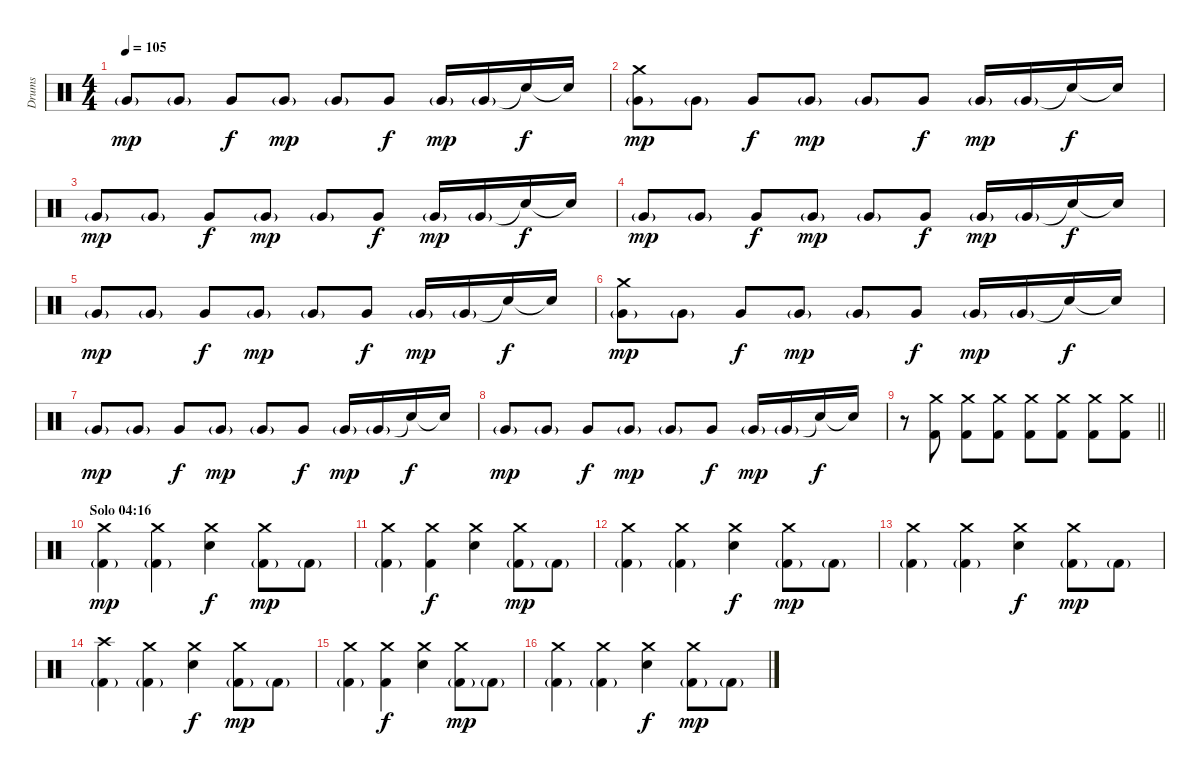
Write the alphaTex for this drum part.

\track ("Drums" "Drums") {instrument percussion}
\staff {score}
\articulation defaults
\ts (4 4)
\tempo 105
\clef neutral
\ks c "Very Low Tom (hit)"{g}.8{dy mp} "Very Low Tom (hit)"{g}.8 "Very Low Tom (hit)".8{dy f} "Very Low Tom (hit)"{g}.8{dy mp} "Very Low Tom (hit)"{g}.8 "Very Low Tom (hit)".8{dy f} "Very Low Tom (hit)"{g}.16{dy mp} "Very Low Tom (hit)"{g}.16 "Snare (hit)"{t}.16{dy f} "Snare (hit)"{t}.16
|
("Crash medium (hit)" "Very Low Tom (hit)"{g}).8{dy mp} "Very Low Tom (hit)"{g}.8 "Very Low Tom (hit)".8{dy f} "Very Low Tom (hit)"{g}.8{dy mp} "Very Low Tom (hit)"{g}.8 "Very Low Tom (hit)".8{dy f} "Very Low Tom (hit)"{g}.16{dy mp} "Very Low Tom (hit)"{g}.16 "Snare (hit)"{t}.16{dy f} "Snare (hit)"{t}.16 |
"Very Low Tom (hit)"{g}.8{dy mp} "Very Low Tom (hit)"{g}.8 "Very Low Tom (hit)".8{dy f} "Very Low Tom (hit)"{g}.8{dy mp} "Very Low Tom (hit)"{g}.8 "Very Low Tom (hit)".8{dy f} "Very Low Tom (hit)"{g}.16{dy mp} "Very Low Tom (hit)"{g}.16 "Snare (hit)"{t}.16{dy f} "Snare (hit)"{t}.16 |
"Very Low Tom (hit)"{g}.8{dy mp} "Very Low Tom (hit)"{g}.8 "Very Low Tom (hit)".8{dy f} "Very Low Tom (hit)"{g}.8{dy mp} "Very Low Tom (hit)"{g}.8 "Very Low Tom (hit)".8{dy f} "Very Low Tom (hit)"{g}.16{dy mp} "Very Low Tom (hit)"{g}.16 "Snare (hit)"{t}.16{dy f} "Snare (hit)"{t}.16 |
"Very Low Tom (hit)"{g}.8{dy mp} "Very Low Tom (hit)"{g}.8 "Very Low Tom (hit)".8{dy f} "Very Low Tom (hit)"{g}.8{dy mp} "Very Low Tom (hit)"{g}.8 "Very Low Tom (hit)".8{dy f} "Very Low Tom (hit)"{g}.16{dy mp} "Very Low Tom (hit)"{g}.16 "Snare (hit)"{t}.16{dy f} "Snare (hit)"{t}.16 |
("Crash medium (hit)" "Very Low Tom (hit)"{g}).8{dy mp} "Very Low Tom (hit)"{g}.8 "Very Low Tom (hit)".8{dy f} "Very Low Tom (hit)"{g}.8{dy mp} "Very Low Tom (hit)"{g}.8 "Very Low Tom (hit)".8{dy f} "Very Low Tom (hit)"{g}.16{dy mp} "Very Low Tom (hit)"{g}.16 "Snare (hit)"{t}.16{dy f} "Snare (hit)"{t}.16 |
"Very Low Tom (hit)"{g}.8{dy mp} "Very Low Tom (hit)"{g}.8 "Very Low Tom (hit)".8{dy f} "Very Low Tom (hit)"{g}.8{dy mp} "Very Low Tom (hit)"{g}.8 "Very Low Tom (hit)".8{dy f} "Very Low Tom (hit)"{g}.16{dy mp} "Very Low Tom (hit)"{g}.16 "Snare (hit)"{t}.16{dy f} "Snare (hit)"{t}.16 |
"Very Low Tom (hit)"{g}.8{dy mp} "Very Low Tom (hit)"{g}.8 "Very Low Tom (hit)".8{dy f} "Very Low Tom (hit)"{g}.8{dy mp} "Very Low Tom (hit)"{g}.8 "Very Low Tom (hit)".8{dy f} "Very Low Tom (hit)"{g}.16{dy mp} "Very Low Tom (hit)"{g}.16 "Snare (hit)"{t}.16{dy f} "Snare (hit)"{t}.16 |
\barLineRight lightlight
r.8{volume 5} ("Crash medium (hit)" "Kick (hit) 2").8{volume 16} ("Crash medium (hit)" "Kick (hit) 2").8 ("Crash medium (hit)" "Kick (hit) 2").8 ("Crash medium (hit)" "Kick (hit) 2").8 ("Crash medium (hit)" "Kick (hit) 2").8 ("Crash medium (hit)" "Kick (hit) 2").8 ("Crash medium (hit)" "Kick (hit) 2").8 |
\section ("" "Solo 04:16")
("Crash medium (hit)" "Kick (hit) 2"{g}).4{dy mp volume 13} ("Crash medium (hit)" "Kick (hit) 2"{g}).4 ("Crash medium (hit)" "Electric Snare (hit)").4{dy f} ("Crash medium (hit)" "Kick (hit) 2"{g}).8{dy mp} "Kick (hit) 2"{g}.8 |
("Crash medium (hit)" "Kick (hit) 2"{g}).4 ("Crash medium (hit)" "Kick (hit) 2").4{dy f} ("Crash medium (hit)" "Electric Snare (hit)").4 ("Crash medium (hit)" "Kick (hit) 2"{g}).8{dy mp} "Kick (hit) 2"{g}.8 |
("Crash medium (hit)" "Kick (hit) 2"{g}).4 ("Crash medium (hit)" "Kick (hit) 2"{g}).4 ("Crash medium (hit)" "Electric Snare (hit)").4{dy f} ("Crash medium (hit)" "Kick (hit) 2"{g}).8{dy mp} "Kick (hit) 2"{g}.8 |
("Crash medium (hit)" "Kick (hit) 2"{g}).4 ("Crash medium (hit)" "Kick (hit) 2"{g}).4 ("Crash medium (hit)" "Electric Snare (hit)").4{dy f} ("Crash medium (hit)" "Kick (hit) 2"{g}).8{dy mp} "Kick (hit) 2"{g}.8 |
("Crash high (hit)" "Kick (hit) 2"{g}).4 ("Crash medium (hit)" "Kick (hit) 2"{g}).4 ("Crash medium (hit)" "Electric Snare (hit)").4{dy f} ("Crash medium (hit)" "Kick (hit) 2"{g}).8{dy mp} "Kick (hit) 2"{g}.8 |
("Crash medium (hit)" "Kick (hit) 2"{g}).4 ("Crash medium (hit)" "Kick (hit) 2").4{dy f} ("Crash medium (hit)" "Electric Snare (hit)").4 ("Crash medium (hit)" "Kick (hit) 2"{g}).8{dy mp} "Kick (hit) 2"{g}.8 |
("Crash medium (hit)" "Kick (hit) 2"{g}).4 ("Crash medium (hit)" "Kick (hit) 2"{g}).4 ("Crash medium (hit)" "Electric Snare (hit)").4{dy f} ("Crash medium (hit)" "Kick (hit) 2"{g}).8{dy mp} "Kick (hit) 2"{g}.8
